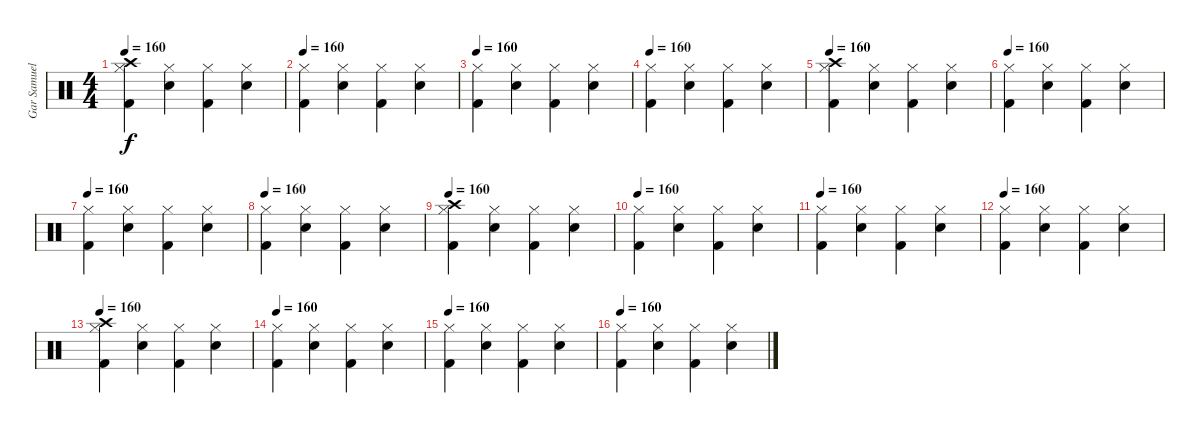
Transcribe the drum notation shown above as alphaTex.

\track ("Gar Samuelson (Drums)" "Gar Samuel") {instrument percussion}
\staff {score}
\articulation defaults
\ts (4 4)
\tempo 160
\clef neutral
\ks c
("Crash high (hit)" "Hi-Hat (closed)" "Kick (hit) 2").4{dy f} ("Electric Snare (hit)" "Hi-Hat (closed)").4 ("Hi-Hat (closed)" "Kick (hit) 2").4 ("Electric Snare (hit)" "Hi-Hat (closed)").4 |
\tempo 160
("Hi-Hat (closed)" "Kick (hit) 2").4 ("Electric Snare (hit)" "Hi-Hat (closed)").4 ("Hi-Hat (closed)" "Kick (hit) 2").4 ("Electric Snare (hit)" "Hi-Hat (closed)").4 |
\tempo 160
("Hi-Hat (closed)" "Kick (hit) 2").4 ("Electric Snare (hit)" "Hi-Hat (closed)").4 ("Hi-Hat (closed)" "Kick (hit) 2").4 ("Electric Snare (hit)" "Hi-Hat (closed)").4 |
\tempo 160
("Hi-Hat (closed)" "Kick (hit) 2").4 ("Electric Snare (hit)" "Hi-Hat (closed)").4 ("Hi-Hat (closed)" "Kick (hit) 2").4 ("Electric Snare (hit)" "Hi-Hat (closed)").4 |
\tempo 160
("Crash high (hit)" "Hi-Hat (closed)" "Kick (hit) 2").4 ("Electric Snare (hit)" "Hi-Hat (closed)").4 ("Hi-Hat (closed)" "Kick (hit) 2").4 ("Electric Snare (hit)" "Hi-Hat (closed)").4 |
\tempo 160
("Hi-Hat (closed)" "Kick (hit) 2").4 ("Electric Snare (hit)" "Hi-Hat (closed)").4 ("Hi-Hat (closed)" "Kick (hit) 2").4 ("Electric Snare (hit)" "Hi-Hat (closed)").4 |
\tempo 160
("Hi-Hat (closed)" "Kick (hit) 2").4 ("Electric Snare (hit)" "Hi-Hat (closed)").4 ("Hi-Hat (closed)" "Kick (hit) 2").4 ("Electric Snare (hit)" "Hi-Hat (closed)").4 |
\tempo 160
("Hi-Hat (closed)" "Kick (hit) 2").4 ("Electric Snare (hit)" "Hi-Hat (closed)").4 ("Hi-Hat (closed)" "Kick (hit) 2").4 ("Electric Snare (hit)" "Hi-Hat (closed)").4 |
\tempo 160
("Crash high (hit)" "Hi-Hat (closed)" "Kick (hit) 2").4 ("Electric Snare (hit)" "Hi-Hat (closed)").4 ("Hi-Hat (closed)" "Kick (hit) 2").4 ("Electric Snare (hit)" "Hi-Hat (closed)").4 |
\tempo 160
("Hi-Hat (closed)" "Kick (hit) 2").4 ("Electric Snare (hit)" "Hi-Hat (closed)").4 ("Hi-Hat (closed)" "Kick (hit) 2").4 ("Electric Snare (hit)" "Hi-Hat (closed)").4 |
\tempo 160
("Hi-Hat (closed)" "Kick (hit) 2").4 ("Electric Snare (hit)" "Hi-Hat (closed)").4 ("Hi-Hat (closed)" "Kick (hit) 2").4 ("Electric Snare (hit)" "Hi-Hat (closed)").4 |
\tempo 160
("Hi-Hat (closed)" "Kick (hit) 2").4 ("Electric Snare (hit)" "Hi-Hat (closed)").4 ("Hi-Hat (closed)" "Kick (hit) 2").4 ("Electric Snare (hit)" "Hi-Hat (closed)").4 |
\tempo 160
("Crash high (hit)" "Hi-Hat (closed)" "Kick (hit) 2").4 ("Electric Snare (hit)" "Hi-Hat (closed)").4 ("Hi-Hat (closed)" "Kick (hit) 2").4 ("Electric Snare (hit)" "Hi-Hat (closed)").4 |
\tempo 160
("Hi-Hat (closed)" "Kick (hit) 2").4 ("Electric Snare (hit)" "Hi-Hat (closed)").4 ("Hi-Hat (closed)" "Kick (hit) 2").4 ("Electric Snare (hit)" "Hi-Hat (closed)").4 |
\tempo 160
("Hi-Hat (closed)" "Kick (hit) 2").4 ("Electric Snare (hit)" "Hi-Hat (closed)").4 ("Hi-Hat (closed)" "Kick (hit) 2").4 ("Electric Snare (hit)" "Hi-Hat (closed)").4 |
\tempo 160
("Hi-Hat (closed)" "Kick (hit) 2").4 ("Electric Snare (hit)" "Hi-Hat (closed)").4 ("Hi-Hat (closed)" "Kick (hit) 2").4 ("Electric Snare (hit)" "Hi-Hat (closed)").4
